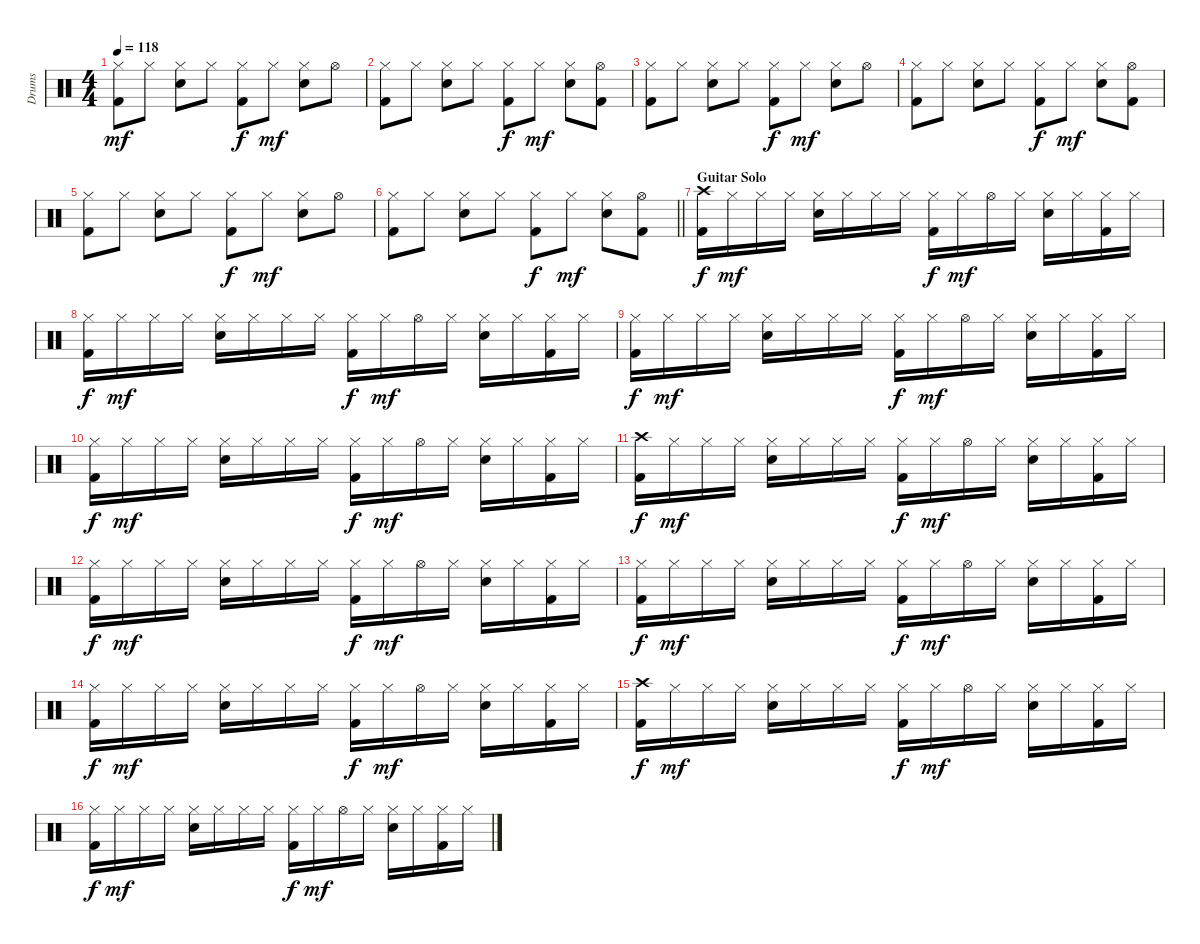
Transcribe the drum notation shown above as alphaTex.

\track ("Drums" "Drums") {instrument percussion}
\staff {score}
\articulation defaults
\ts (4 4)
\tempo 118
\clef neutral
\ks c
("Hi-Hat (closed)" "Kick (hit) 2").8{dy mf} "Hi-Hat (closed)".8 ("Hi-Hat (closed)" "Snare (hit) 2").8 "Hi-Hat (closed)".8 ("Hi-Hat (closed)" "Kick (hit) 2").8{dy f} "Hi-Hat (closed)".8{dy mf} ("Hi-Hat (closed)" "Snare (hit) 2").8 "Hi-Hat (open)".8 |
("Hi-Hat (closed)" "Kick (hit) 2").8 "Hi-Hat (closed)".8 ("Hi-Hat (closed)" "Snare (hit) 2").8 "Hi-Hat (closed)".8 ("Hi-Hat (closed)" "Kick (hit) 2").8{dy f} "Hi-Hat (closed)".8{dy mf} ("Hi-Hat (closed)" "Snare (hit) 2").8 ("Hi-Hat (open)" "Kick (hit) 2").8 |
("Hi-Hat (closed)" "Kick (hit) 2").8 "Hi-Hat (closed)".8 ("Hi-Hat (closed)" "Snare (hit) 2").8 "Hi-Hat (closed)".8 ("Hi-Hat (closed)" "Kick (hit) 2").8{dy f} "Hi-Hat (closed)".8{dy mf} ("Hi-Hat (closed)" "Snare (hit) 2").8 "Hi-Hat (open)".8 |
("Hi-Hat (closed)" "Kick (hit) 2").8 "Hi-Hat (closed)".8 ("Hi-Hat (closed)" "Snare (hit) 2").8 "Hi-Hat (closed)".8 ("Hi-Hat (closed)" "Kick (hit) 2").8{dy f} "Hi-Hat (closed)".8{dy mf} ("Hi-Hat (closed)" "Snare (hit) 2").8 ("Hi-Hat (open)" "Kick (hit) 2").8 |
("Hi-Hat (closed)" "Kick (hit) 2").8 "Hi-Hat (closed)".8 ("Hi-Hat (closed)" "Snare (hit) 2").8 "Hi-Hat (closed)".8 ("Hi-Hat (closed)" "Kick (hit) 2").8{dy f} "Hi-Hat (closed)".8{dy mf} ("Hi-Hat (closed)" "Snare (hit) 2").8 "Hi-Hat (open)".8 |
\barLineRight lightlight
("Hi-Hat (closed)" "Kick (hit) 2").8 "Hi-Hat (closed)".8 ("Hi-Hat (closed)" "Snare (hit) 2").8 "Hi-Hat (closed)".8 ("Hi-Hat (closed)" "Kick (hit) 2").8{dy f} "Hi-Hat (closed)".8{dy mf} ("Hi-Hat (closed)" "Snare (hit) 2").8 ("Hi-Hat (open)" "Kick (hit) 2").8 |
\section ("" "Guitar Solo")
("Crash high (hit)" "Kick (hit) 2").16{dy f} "Hi-Hat (closed)".16{dy mf} "Hi-Hat (closed)".16 "Hi-Hat (closed)".16 ("Hi-Hat (closed)" "Snare (hit) 2").16 "Hi-Hat (closed)".16 "Hi-Hat (closed)".16 "Hi-Hat (closed)".16 ("Hi-Hat (closed)" "Kick (hit) 2").16{dy f} "Hi-Hat (closed)".16{dy mf} "Hi-Hat (open)".16 "Hi-Hat (closed)".16 ("Hi-Hat (closed)" "Snare (hit) 2").16 "Hi-Hat (closed)".16 ("Hi-Hat (closed)" "Kick (hit) 2").16 "Hi-Hat (closed)".16 |
("Hi-Hat (closed)" "Kick (hit) 2").16{dy f} "Hi-Hat (closed)".16{dy mf} "Hi-Hat (closed)".16 "Hi-Hat (closed)".16 ("Hi-Hat (closed)" "Snare (hit) 2").16 "Hi-Hat (closed)".16 "Hi-Hat (closed)".16 "Hi-Hat (closed)".16 ("Hi-Hat (closed)" "Kick (hit) 2").16{dy f} "Hi-Hat (closed)".16{dy mf} "Hi-Hat (open)".16 "Hi-Hat (closed)".16 ("Hi-Hat (closed)" "Snare (hit) 2").16 "Hi-Hat (closed)".16 ("Hi-Hat (closed)" "Kick (hit) 2").16 "Hi-Hat (closed)".16 |
("Hi-Hat (closed)" "Kick (hit) 2").16{dy f} "Hi-Hat (closed)".16{dy mf} "Hi-Hat (closed)".16 "Hi-Hat (closed)".16 ("Hi-Hat (closed)" "Snare (hit) 2").16 "Hi-Hat (closed)".16 "Hi-Hat (closed)".16 "Hi-Hat (closed)".16 ("Hi-Hat (closed)" "Kick (hit) 2").16{dy f} "Hi-Hat (closed)".16{dy mf} "Hi-Hat (open)".16 "Hi-Hat (closed)".16 ("Hi-Hat (closed)" "Snare (hit) 2").16 "Hi-Hat (closed)".16 ("Hi-Hat (closed)" "Kick (hit) 2").16 "Hi-Hat (closed)".16 |
("Hi-Hat (closed)" "Kick (hit) 2").16{dy f} "Hi-Hat (closed)".16{dy mf} "Hi-Hat (closed)".16 "Hi-Hat (closed)".16 ("Hi-Hat (closed)" "Snare (hit) 2").16 "Hi-Hat (closed)".16 "Hi-Hat (closed)".16 "Hi-Hat (closed)".16 ("Hi-Hat (closed)" "Kick (hit) 2").16{dy f} "Hi-Hat (closed)".16{dy mf} "Hi-Hat (open)".16 "Hi-Hat (closed)".16 ("Hi-Hat (closed)" "Snare (hit) 2").16 "Hi-Hat (closed)".16 ("Hi-Hat (closed)" "Kick (hit) 2").16 "Hi-Hat (closed)".16 |
("Crash high (hit)" "Kick (hit) 2").16{dy f} "Hi-Hat (closed)".16{dy mf} "Hi-Hat (closed)".16 "Hi-Hat (closed)".16 ("Hi-Hat (closed)" "Snare (hit) 2").16 "Hi-Hat (closed)".16 "Hi-Hat (closed)".16 "Hi-Hat (closed)".16 ("Hi-Hat (closed)" "Kick (hit) 2").16{dy f} "Hi-Hat (closed)".16{dy mf} "Hi-Hat (open)".16 "Hi-Hat (closed)".16 ("Hi-Hat (closed)" "Snare (hit) 2").16 "Hi-Hat (closed)".16 ("Hi-Hat (closed)" "Kick (hit) 2").16 "Hi-Hat (closed)".16 |
("Hi-Hat (closed)" "Kick (hit) 2").16{dy f} "Hi-Hat (closed)".16{dy mf} "Hi-Hat (closed)".16 "Hi-Hat (closed)".16 ("Hi-Hat (closed)" "Snare (hit) 2").16 "Hi-Hat (closed)".16 "Hi-Hat (closed)".16 "Hi-Hat (closed)".16 ("Hi-Hat (closed)" "Kick (hit) 2").16{dy f} "Hi-Hat (closed)".16{dy mf} "Hi-Hat (open)".16 "Hi-Hat (closed)".16 ("Hi-Hat (closed)" "Snare (hit) 2").16 "Hi-Hat (closed)".16 ("Hi-Hat (closed)" "Kick (hit) 2").16 "Hi-Hat (closed)".16 |
("Hi-Hat (closed)" "Kick (hit) 2").16{dy f} "Hi-Hat (closed)".16{dy mf} "Hi-Hat (closed)".16 "Hi-Hat (closed)".16 ("Hi-Hat (closed)" "Snare (hit) 2").16 "Hi-Hat (closed)".16 "Hi-Hat (closed)".16 "Hi-Hat (closed)".16 ("Hi-Hat (closed)" "Kick (hit) 2").16{dy f} "Hi-Hat (closed)".16{dy mf} "Hi-Hat (open)".16 "Hi-Hat (closed)".16 ("Hi-Hat (closed)" "Snare (hit) 2").16 "Hi-Hat (closed)".16 ("Hi-Hat (closed)" "Kick (hit) 2").16 "Hi-Hat (closed)".16 |
("Hi-Hat (closed)" "Kick (hit) 2").16{dy f} "Hi-Hat (closed)".16{dy mf} "Hi-Hat (closed)".16 "Hi-Hat (closed)".16 ("Hi-Hat (closed)" "Snare (hit) 2").16 "Hi-Hat (closed)".16 "Hi-Hat (closed)".16 "Hi-Hat (closed)".16 ("Hi-Hat (closed)" "Kick (hit) 2").16{dy f} "Hi-Hat (closed)".16{dy mf} "Hi-Hat (open)".16 "Hi-Hat (closed)".16 ("Hi-Hat (closed)" "Snare (hit) 2").16 "Hi-Hat (closed)".16 ("Hi-Hat (closed)" "Kick (hit) 2").16 "Hi-Hat (closed)".16 |
("Crash high (hit)" "Kick (hit) 2").16{dy f} "Hi-Hat (closed)".16{dy mf} "Hi-Hat (closed)".16 "Hi-Hat (closed)".16 ("Hi-Hat (closed)" "Snare (hit) 2").16 "Hi-Hat (closed)".16 "Hi-Hat (closed)".16 "Hi-Hat (closed)".16 ("Hi-Hat (closed)" "Kick (hit) 2").16{dy f} "Hi-Hat (closed)".16{dy mf} "Hi-Hat (open)".16 "Hi-Hat (closed)".16 ("Hi-Hat (closed)" "Snare (hit) 2").16 "Hi-Hat (closed)".16 ("Hi-Hat (closed)" "Kick (hit) 2").16 "Hi-Hat (closed)".16 |
("Hi-Hat (closed)" "Kick (hit) 2").16{dy f} "Hi-Hat (closed)".16{dy mf} "Hi-Hat (closed)".16 "Hi-Hat (closed)".16 ("Hi-Hat (closed)" "Snare (hit) 2").16 "Hi-Hat (closed)".16 "Hi-Hat (closed)".16 "Hi-Hat (closed)".16 ("Hi-Hat (closed)" "Kick (hit) 2").16{dy f} "Hi-Hat (closed)".16{dy mf} "Hi-Hat (open)".16 "Hi-Hat (closed)".16 ("Hi-Hat (closed)" "Snare (hit) 2").16 "Hi-Hat (closed)".16 ("Hi-Hat (closed)" "Kick (hit) 2").16 "Hi-Hat (closed)".16
